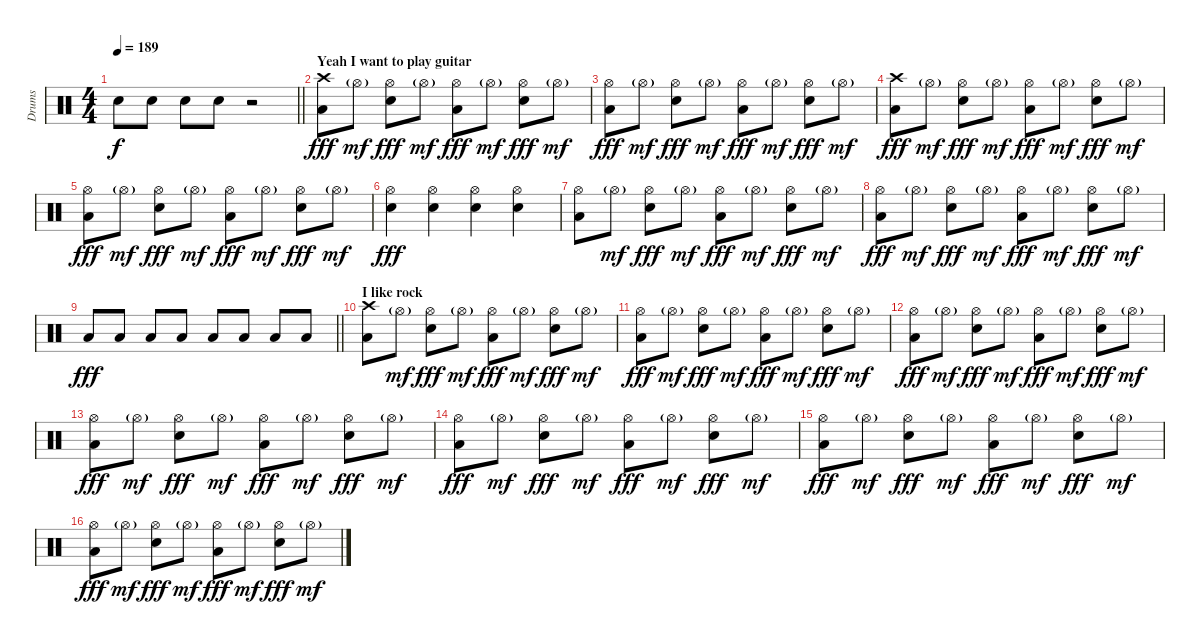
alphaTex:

\track ("Drums" "Drums") {instrument percussion}
\staff {score}
\articulation defaults
\ts (4 4)
\tempo 189
\clef neutral
\barLineRight lightlight
\ks c "Snare (hit) 2".8{dy f} "Snare (hit) 2".8 "Snare (hit) 2".8 "Snare (hit) 2".8
r.2 |
\section ("" "Yeah I want to play guitar")
("Crash high (hit)" "Low Floor Tom (hit)").8{dy fff} "Hi-Hat (open)"{g}.8{dy mf} ("Hi-Hat (open)" "Snare (hit) 2").8{dy fff} "Hi-Hat (open)"{g}.8{dy mf} ("Hi-Hat (open)" "Low Floor Tom (hit)").8{dy fff} "Hi-Hat (open)"{g}.8{dy mf} ("Hi-Hat (open)" "Snare (hit) 2").8{dy fff} "Hi-Hat (open)"{g}.8{dy mf} |
("Hi-Hat (open)" "Low Floor Tom (hit)").8{dy fff} "Hi-Hat (open)"{g}.8{dy mf} ("Hi-Hat (open)" "Snare (hit) 2").8{dy fff} "Hi-Hat (open)"{g}.8{dy mf} ("Hi-Hat (open)" "Low Floor Tom (hit)").8{dy fff} "Hi-Hat (open)"{g}.8{dy mf} ("Hi-Hat (open)" "Snare (hit) 2").8{dy fff} "Hi-Hat (open)"{g}.8{dy mf} |
("Crash high (hit)" "Low Floor Tom (hit)").8{dy fff} "Hi-Hat (open)"{g}.8{dy mf} ("Hi-Hat (open)" "Snare (hit) 2").8{dy fff} "Hi-Hat (open)"{g}.8{dy mf} ("Hi-Hat (open)" "Low Floor Tom (hit)").8{dy fff} "Hi-Hat (open)"{g}.8{dy mf} ("Hi-Hat (open)" "Snare (hit) 2").8{dy fff} "Hi-Hat (open)"{g}.8{dy mf} |
("Hi-Hat (open)" "Low Floor Tom (hit)").8{dy fff} "Hi-Hat (open)"{g}.8{dy mf} ("Hi-Hat (open)" "Snare (hit) 2").8{dy fff} "Hi-Hat (open)"{g}.8{dy mf} ("Hi-Hat (open)" "Low Floor Tom (hit)").8{dy fff} "Hi-Hat (open)"{g}.8{dy mf} ("Hi-Hat (open)" "Snare (hit) 2").8{dy fff} "Hi-Hat (open)"{g}.8{dy mf} |
("Hi-Hat (open)" "Snare (hit) 2").4{dy fff} ("Hi-Hat (open)" "Snare (hit) 2").4 ("Hi-Hat (open)" "Snare (hit) 2").4 ("Hi-Hat (open)" "Snare (hit) 2").4 |
("Hi-Hat (open)" "Low Floor Tom (hit)").8 "Hi-Hat (open)"{g}.8{dy mf} ("Hi-Hat (open)" "Snare (hit) 2").8{dy fff} "Hi-Hat (open)"{g}.8{dy mf} ("Hi-Hat (open)" "Low Floor Tom (hit)").8{dy fff} "Hi-Hat (open)"{g}.8{dy mf} ("Hi-Hat (open)" "Snare (hit) 2").8{dy fff} "Hi-Hat (open)"{g}.8{dy mf} |
("Hi-Hat (open)" "Low Floor Tom (hit)").8{dy fff} "Hi-Hat (open)"{g}.8{dy mf} ("Hi-Hat (open)" "Snare (hit) 2").8{dy fff} "Hi-Hat (open)"{g}.8{dy mf} ("Hi-Hat (open)" "Low Floor Tom (hit)").8{dy fff} "Hi-Hat (open)"{g}.8{dy mf} ("Hi-Hat (open)" "Snare (hit) 2").8{dy fff} "Hi-Hat (open)"{g}.8{dy mf} |
\barLineRight lightlight "Low Floor Tom (hit)".8{dy fff} "Low Floor Tom (hit)".8 "Low Floor Tom (hit)".8 "Low Floor Tom (hit)".8 "Low Floor Tom (hit)".8 "Low Floor Tom (hit)".8 "Low Floor Tom (hit)".8 "Low Floor Tom (hit)".8
|
\section ("" "I like rock")
("Crash high (hit)" "Low Floor Tom (hit)").8 "Hi-Hat (open)"{g}.8{dy mf} ("Hi-Hat (open)" "Snare (hit) 2").8{dy fff} "Hi-Hat (open)"{g}.8{dy mf} ("Hi-Hat (open)" "Low Floor Tom (hit)").8{dy fff} "Hi-Hat (open)"{g}.8{dy mf} ("Hi-Hat (open)" "Snare (hit) 2").8{dy fff} "Hi-Hat (open)"{g}.8{dy mf} |
("Hi-Hat (open)" "Low Floor Tom (hit)").8{dy fff} "Hi-Hat (open)"{g}.8{dy mf} ("Hi-Hat (open)" "Snare (hit) 2").8{dy fff} "Hi-Hat (open)"{g}.8{dy mf} ("Hi-Hat (open)" "Low Floor Tom (hit)").8{dy fff} "Hi-Hat (open)"{g}.8{dy mf} ("Hi-Hat (open)" "Snare (hit) 2").8{dy fff} "Hi-Hat (open)"{g}.8{dy mf} |
("Hi-Hat (open)" "Low Floor Tom (hit)").8{dy fff} "Hi-Hat (open)"{g}.8{dy mf} ("Hi-Hat (open)" "Snare (hit) 2").8{dy fff} "Hi-Hat (open)"{g}.8{dy mf} ("Hi-Hat (open)" "Low Floor Tom (hit)").8{dy fff} "Hi-Hat (open)"{g}.8{dy mf} ("Hi-Hat (open)" "Snare (hit) 2").8{dy fff} "Hi-Hat (open)"{g}.8{dy mf} |
("Hi-Hat (open)" "Low Floor Tom (hit)").8{dy fff} "Hi-Hat (open)"{g}.8{dy mf} ("Hi-Hat (open)" "Snare (hit) 2").8{dy fff} "Hi-Hat (open)"{g}.8{dy mf} ("Hi-Hat (open)" "Low Floor Tom (hit)").8{dy fff} "Hi-Hat (open)"{g}.8{dy mf} ("Hi-Hat (open)" "Snare (hit) 2").8{dy fff} "Hi-Hat (open)"{g}.8{dy mf} |
("Hi-Hat (open)" "Low Floor Tom (hit)").8{dy fff} "Hi-Hat (open)"{g}.8{dy mf} ("Hi-Hat (open)" "Snare (hit) 2").8{dy fff} "Hi-Hat (open)"{g}.8{dy mf} ("Hi-Hat (open)" "Low Floor Tom (hit)").8{dy fff} "Hi-Hat (open)"{g}.8{dy mf} ("Hi-Hat (open)" "Snare (hit) 2").8{dy fff} "Hi-Hat (open)"{g}.8{dy mf} |
("Hi-Hat (open)" "Low Floor Tom (hit)").8{dy fff} "Hi-Hat (open)"{g}.8{dy mf} ("Hi-Hat (open)" "Snare (hit) 2").8{dy fff} "Hi-Hat (open)"{g}.8{dy mf} ("Hi-Hat (open)" "Low Floor Tom (hit)").8{dy fff} "Hi-Hat (open)"{g}.8{dy mf} ("Hi-Hat (open)" "Snare (hit) 2").8{dy fff} "Hi-Hat (open)"{g}.8{dy mf} |
("Hi-Hat (open)" "Low Floor Tom (hit)").8{dy fff} "Hi-Hat (open)"{g}.8{dy mf} ("Hi-Hat (open)" "Snare (hit) 2").8{dy fff} "Hi-Hat (open)"{g}.8{dy mf} ("Hi-Hat (open)" "Low Floor Tom (hit)").8{dy fff} "Hi-Hat (open)"{g}.8{dy mf} ("Hi-Hat (open)" "Snare (hit) 2").8{dy fff} "Hi-Hat (open)"{g}.8{dy mf}
